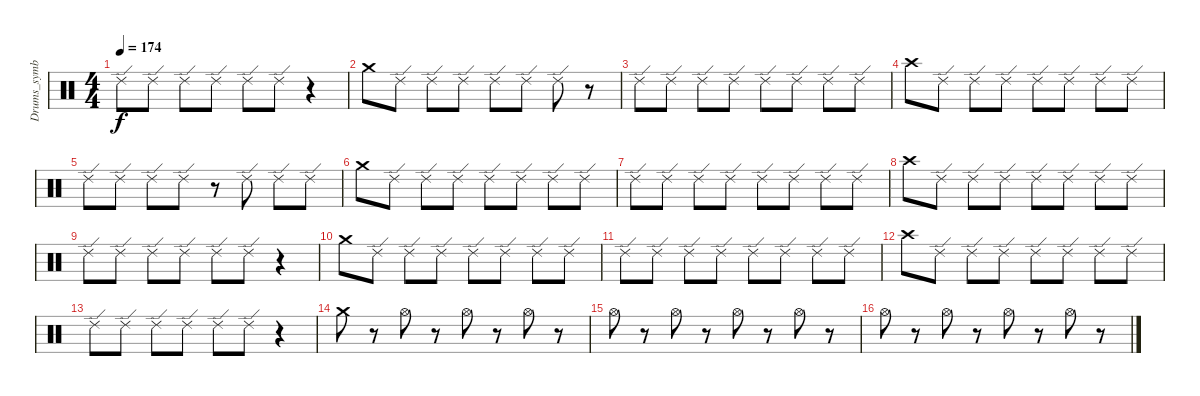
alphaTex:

\track ("Drums_symbal" "Drums_symb") {instrument percussion}
\staff {score}
\articulation defaults
\ts (4 4)
\tempo 174
\clef neutral
\ks c "Ride (edge) 2".8{dy f} "Ride (edge) 2".8 "Ride (edge) 2".8 "Ride (edge) 2".8 "Ride (edge) 2".8 "Ride (edge) 2".8
r.4 |
"Crash medium (hit)".8 "Ride (edge) 2".8 "Ride (edge) 2".8 "Ride (edge) 2".8 "Ride (edge) 2".8 "Ride (edge) 2".8 "Ride (edge) 2".8 r.8 |
"Ride (edge) 2".8 "Ride (edge) 2".8 "Ride (edge) 2".8 "Ride (edge) 2".8 "Ride (edge) 2".8 "Ride (edge) 2".8 "Ride (edge) 2".8 "Ride (edge) 2".8 |
"Crash high (hit)".8 "Ride (edge) 2".8 "Ride (edge) 2".8 "Ride (edge) 2".8 "Ride (edge) 2".8 "Ride (edge) 2".8 "Ride (edge) 2".8 "Ride (edge) 2".8 |
"Ride (edge) 2".8 "Ride (edge) 2".8 "Ride (edge) 2".8 "Ride (edge) 2".8 r.8 "Ride (edge) 2".8 "Ride (edge) 2".8 "Ride (edge) 2".8 |
"Crash medium (hit)".8 "Ride (edge) 2".8 "Ride (edge) 2".8 "Ride (edge) 2".8 "Ride (edge) 2".8 "Ride (edge) 2".8 "Ride (edge) 2".8 "Ride (edge) 2".8 |
"Ride (edge) 2".8 "Ride (edge) 2".8 "Ride (edge) 2".8 "Ride (edge) 2".8 "Ride (edge) 2".8 "Ride (edge) 2".8 "Ride (edge) 2".8 "Ride (edge) 2".8 |
"Crash high (hit)".8 "Ride (edge) 2".8 "Ride (edge) 2".8 "Ride (edge) 2".8 "Ride (edge) 2".8 "Ride (edge) 2".8 "Ride (edge) 2".8 "Ride (edge) 2".8 |
"Ride (edge) 2".8 "Ride (edge) 2".8 "Ride (edge) 2".8 "Ride (edge) 2".8 "Ride (edge) 2".8 "Ride (edge) 2".8 r.4 |
"Crash medium (hit)".8 "Ride (edge) 2".8 "Ride (edge) 2".8 "Ride (edge) 2".8 "Ride (edge) 2".8 "Ride (edge) 2".8 "Ride (edge) 2".8 "Ride (edge) 2".8 |
"Ride (edge) 2".8 "Ride (edge) 2".8 "Ride (edge) 2".8 "Ride (edge) 2".8 "Ride (edge) 2".8 "Ride (edge) 2".8 "Ride (edge) 2".8 "Ride (edge) 2".8 |
"Crash high (hit)".8 "Ride (edge) 2".8 "Ride (edge) 2".8 "Ride (edge) 2".8 "Ride (edge) 2".8 "Ride (edge) 2".8 "Ride (edge) 2".8 "Ride (edge) 2".8 |
"Ride (edge) 2".8 "Ride (edge) 2".8 "Ride (edge) 2".8 "Ride (edge) 2".8 "Ride (edge) 2".8 "Ride (edge) 2".8 r.4 |
"Crash medium (hit)".8 r.8 "Hi-Hat (open)".8 r.8 "Hi-Hat (open)".8 r.8 "Hi-Hat (open)".8 r.8 |
"Hi-Hat (open)".8 r.8 "Hi-Hat (open)".8 r.8 "Hi-Hat (open)".8 r.8 "Hi-Hat (open)".8 r.8 |
"Hi-Hat (open)".8 r.8 "Hi-Hat (open)".8 r.8 "Hi-Hat (open)".8 r.8 "Hi-Hat (open)".8 r.8
